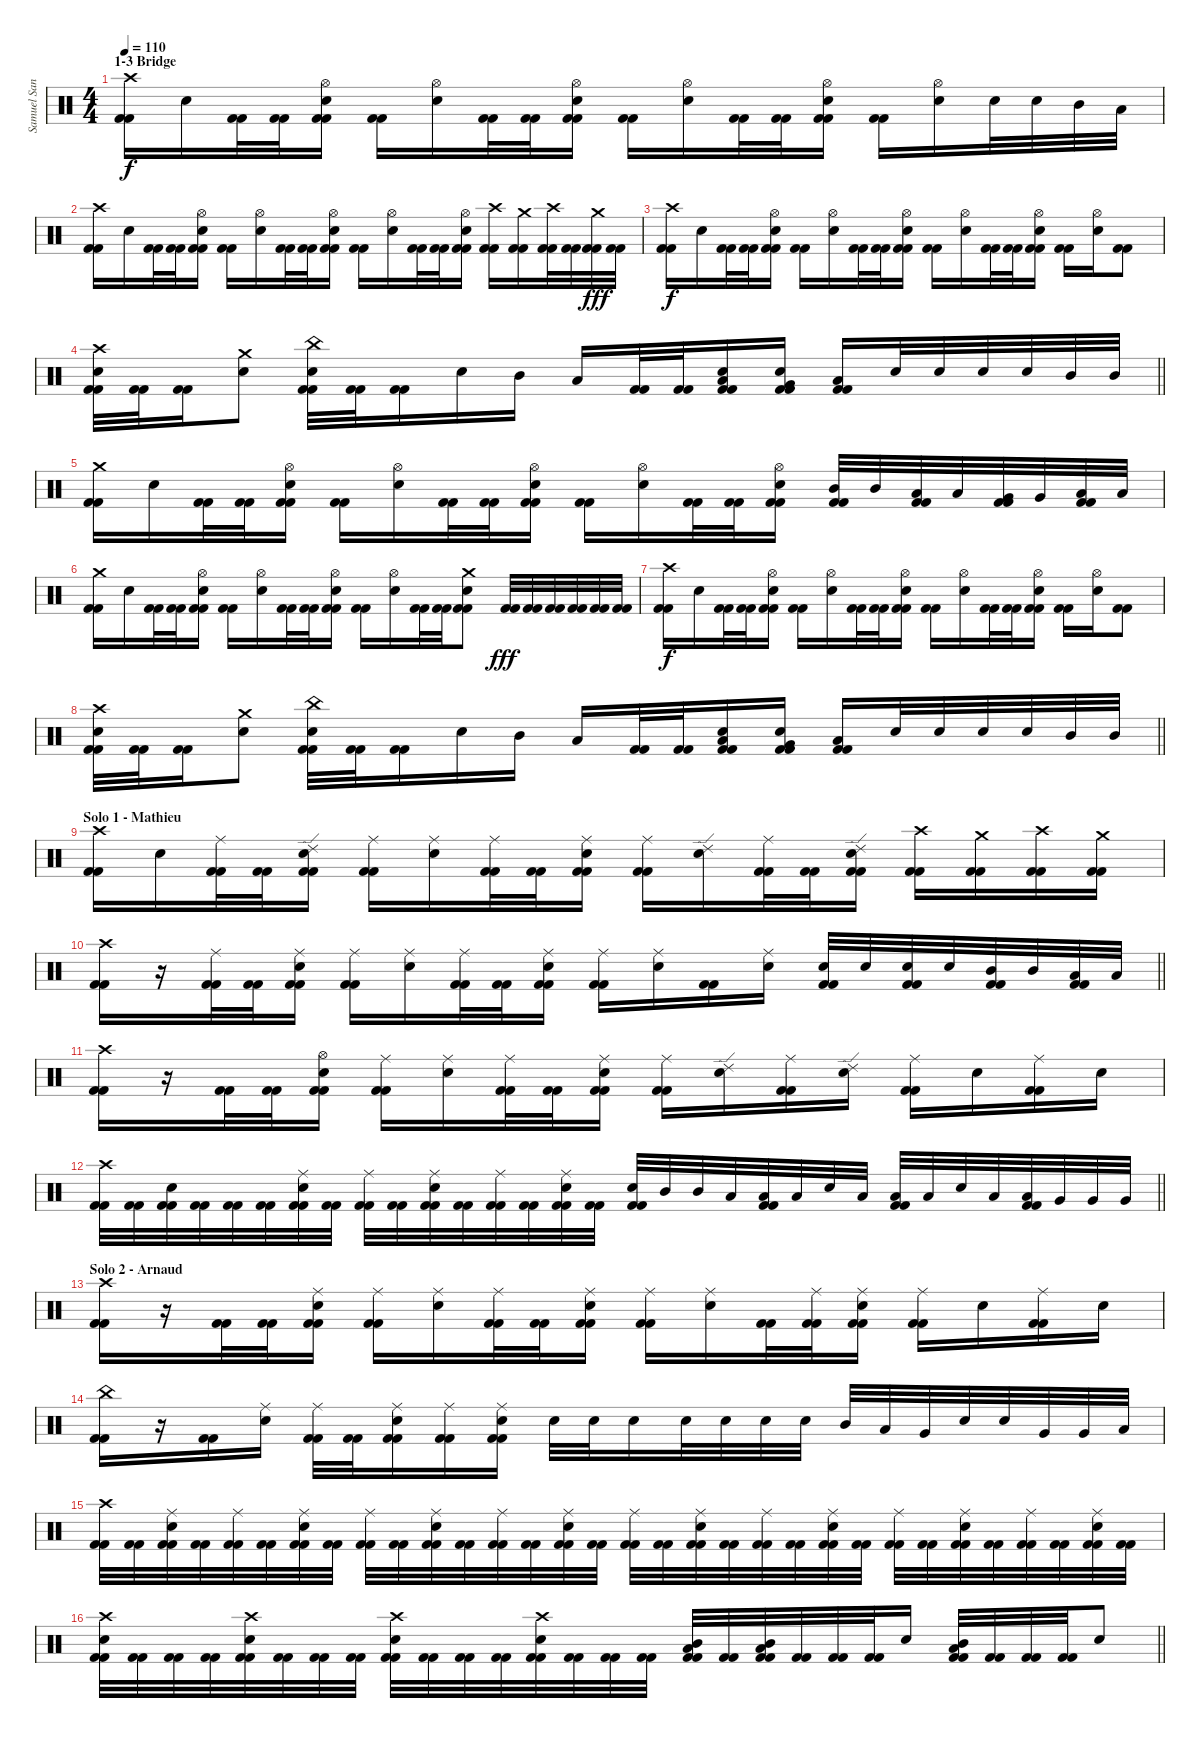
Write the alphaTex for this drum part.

\track ("Samuel Santiago" "Samuel San") {instrument percussion}
\staff {score}
\articulation defaults
\ts (4 4)
\section ("" "1-3 Bridge")
\tempo 110
\clef neutral
\ks c
("Crash high (hit)" "Kick (hit) 2" "Kick (hit) 2").16{dy f} "Electric Snare (hit)".16 ("Kick (hit) 2" "Kick (hit) 2").32 ("Kick (hit) 2" "Kick (hit) 2").32 ("Hi-Hat (open)" "Electric Snare (hit)" "Kick (hit) 2" "Kick (hit) 2").16 ("Kick (hit) 2" "Kick (hit) 2").16 ("Hi-Hat (open)" "Electric Snare (hit)").16 ("Kick (hit) 2" "Kick (hit) 2").32 ("Kick (hit) 2" "Kick (hit) 2").32 ("Hi-Hat (open)" "Electric Snare (hit)" "Kick (hit) 2" "Kick (hit) 2").16 ("Kick (hit) 2" "Kick (hit) 2").16 ("Hi-Hat (open)" "Electric Snare (hit)").16 ("Kick (hit) 2" "Kick (hit) 2").32 ("Kick (hit) 2" "Kick (hit) 2").32 ("Hi-Hat (open)" "Electric Snare (hit)" "Kick (hit) 2" "Kick (hit) 2").16 ("Kick (hit) 2" "Kick (hit) 2").16 ("Hi-Hat (open)" "Electric Snare (hit)").16 "Electric Snare (hit)".32 "Electric Snare (hit)".32 "Mid Tom (hit)".32 "Low Tom (hit)".32 |
("Crash high (hit)" "Kick (hit) 2" "Kick (hit) 2").16 "Electric Snare (hit)".16 ("Kick (hit) 2" "Kick (hit) 2").32 ("Kick (hit) 2" "Kick (hit) 2").32 ("Hi-Hat (open)" "Electric Snare (hit)" "Kick (hit) 2" "Kick (hit) 2").16 ("Kick (hit) 2" "Kick (hit) 2").16 ("Hi-Hat (open)" "Electric Snare (hit)").16 ("Kick (hit) 2" "Kick (hit) 2").32 ("Kick (hit) 2" "Kick (hit) 2").32 ("Hi-Hat (open)" "Electric Snare (hit)" "Kick (hit) 2" "Kick (hit) 2").16 ("Kick (hit) 2" "Kick (hit) 2").16 ("Hi-Hat (open)" "Electric Snare (hit)").16 ("Kick (hit) 2" "Kick (hit) 2").32 ("Kick (hit) 2" "Kick (hit) 2").32 ("Hi-Hat (open)" "Electric Snare (hit)" "Kick (hit) 2" "Kick (hit) 2").16 ("Crash high (hit)" "Kick (hit) 2" "Kick (hit) 2").16 ("Crash medium (hit)" "Kick (hit) 2" "Kick (hit) 2").16 ("Crash high (hit)" "Kick (hit) 2" "Kick (hit) 2").32 ("Kick (hit) 2" "Kick (hit) 2").32 ("Crash medium (hit)" "Kick (hit) 2" "Kick (hit) 2").32{dy fff} ("Kick (hit) 2" "Kick (hit) 2").32 |
("Crash high (hit)" "Kick (hit) 2" "Kick (hit) 2").16{dy f} "Electric Snare (hit)".16 ("Kick (hit) 2" "Kick (hit) 2").32 ("Kick (hit) 2" "Kick (hit) 2").32 ("Hi-Hat (open)" "Electric Snare (hit)" "Kick (hit) 2" "Kick (hit) 2").16 ("Kick (hit) 2" "Kick (hit) 2").16 ("Hi-Hat (open)" "Electric Snare (hit)").16 ("Kick (hit) 2" "Kick (hit) 2").32 ("Kick (hit) 2" "Kick (hit) 2").32 ("Hi-Hat (open)" "Electric Snare (hit)" "Kick (hit) 2" "Kick (hit) 2").16 ("Kick (hit) 2" "Kick (hit) 2").16 ("Hi-Hat (open)" "Electric Snare (hit)").16 ("Kick (hit) 2" "Kick (hit) 2").32 ("Kick (hit) 2" "Kick (hit) 2").32 ("Hi-Hat (open)" "Electric Snare (hit)" "Kick (hit) 2" "Kick (hit) 2").16 ("Kick (hit) 2" "Kick (hit) 2").16 ("Hi-Hat (open)" "Electric Snare (hit)").16 ("Kick (hit) 2" "Kick (hit) 2").8 |
\barLineRight lightlight
("Crash high (hit)" "Electric Snare (hit)" "Kick (hit) 2" "Kick (hit) 2").32 ("Kick (hit) 2" "Kick (hit) 2").32 ("Kick (hit) 2" "Kick (hit) 2").16 ("Crash medium (hit)" "Electric Snare (hit)").8 ("China (hit)" "Electric Snare (hit)" "Kick (hit) 2" "Kick (hit) 2").32 ("Kick (hit) 2" "Kick (hit) 2").32 ("Kick (hit) 2" "Kick (hit) 2").16 "Electric Snare (hit)".16 "Mid Tom (hit)".16 "Low Tom (hit)".16 ("Kick (hit) 2" "Kick (hit) 2").32 ("Kick (hit) 2" "Kick (hit) 2").32 ("Electric Snare (hit)" "Low Tom (hit)" "Kick (hit) 2" "Kick (hit) 2").16 ("Electric Snare (hit)" "Very Low Tom (hit)" "Kick (hit) 2" "Kick (hit) 2").16 ("Low Floor Tom (hit)" "Kick (hit) 2" "Kick (hit) 2").16 "Electric Snare (hit)".32 "Electric Snare (hit)".32 "Electric Snare (hit)".32 "Electric Snare (hit)".32 "Mid Tom (hit)".32 "Mid Tom (hit)".32 |
("Crash medium (hit)" "Kick (hit) 2" "Kick (hit) 2").16 "Electric Snare (hit)".16 ("Kick (hit) 2" "Kick (hit) 2").32 ("Kick (hit) 2" "Kick (hit) 2").32 ("Hi-Hat (open)" "Electric Snare (hit)" "Kick (hit) 2" "Kick (hit) 2").16 ("Kick (hit) 2" "Kick (hit) 2").16 ("Hi-Hat (open)" "Electric Snare (hit)").16 ("Kick (hit) 2" "Kick (hit) 2").32 ("Kick (hit) 2" "Kick (hit) 2").32 ("Hi-Hat (open)" "Electric Snare (hit)" "Kick (hit) 2" "Kick (hit) 2").16 ("Kick (hit) 2" "Kick (hit) 2").16 ("Hi-Hat (open)" "Electric Snare (hit)").16 ("Kick (hit) 2" "Kick (hit) 2").32 ("Kick (hit) 2" "Kick (hit) 2").32 ("Hi-Hat (open)" "Electric Snare (hit)" "Kick (hit) 2" "Kick (hit) 2").16 ("Mid Tom (hit)" "Kick (hit) 2" "Kick (hit) 2").32 "Mid Tom (hit)".32 ("Low Tom (hit)" "Kick (hit) 2" "Kick (hit) 2").32 "Low Tom (hit)".32 ("Very Low Tom (hit)" "Kick (hit) 2" "Kick (hit) 2").32 "Very Low Tom (hit)".32 ("Low Floor Tom (hit)" "Kick (hit) 2" "Kick (hit) 2").32 "Low Floor Tom (hit)".32 |
("Crash medium (hit)" "Kick (hit) 2" "Kick (hit) 2").16 "Electric Snare (hit)".16 ("Kick (hit) 2" "Kick (hit) 2").32 ("Kick (hit) 2" "Kick (hit) 2").32 ("Hi-Hat (open)" "Electric Snare (hit)" "Kick (hit) 2" "Kick (hit) 2").16 ("Kick (hit) 2" "Kick (hit) 2").16 ("Hi-Hat (open)" "Electric Snare (hit)").16 ("Kick (hit) 2" "Kick (hit) 2").32 ("Kick (hit) 2" "Kick (hit) 2").32 ("Hi-Hat (open)" "Electric Snare (hit)" "Kick (hit) 2" "Kick (hit) 2").16 ("Kick (hit) 2" "Kick (hit) 2").16 ("Hi-Hat (open)" "Electric Snare (hit)").16 ("Kick (hit) 2" "Kick (hit) 2").32 ("Kick (hit) 2" "Kick (hit) 2").32 ("Crash medium (hit)" "Electric Snare (hit)" "Kick (hit) 2" "Kick (hit) 2").8 ("Kick (hit) 2" "Kick (hit) 2").32{dy fff} ("Kick (hit) 2" "Kick (hit) 2").32 ("Kick (hit) 2" "Kick (hit) 2").32 ("Kick (hit) 2" "Kick (hit) 2").32 ("Kick (hit) 2" "Kick (hit) 2").32 ("Kick (hit) 2" "Kick (hit) 2").32 |
("Crash high (hit)" "Kick (hit) 2" "Kick (hit) 2").16{dy f} "Electric Snare (hit)".16 ("Kick (hit) 2" "Kick (hit) 2").32 ("Kick (hit) 2" "Kick (hit) 2").32 ("Hi-Hat (open)" "Electric Snare (hit)" "Kick (hit) 2" "Kick (hit) 2").16 ("Kick (hit) 2" "Kick (hit) 2").16 ("Hi-Hat (open)" "Electric Snare (hit)").16 ("Kick (hit) 2" "Kick (hit) 2").32 ("Kick (hit) 2" "Kick (hit) 2").32 ("Hi-Hat (open)" "Electric Snare (hit)" "Kick (hit) 2" "Kick (hit) 2").16 ("Kick (hit) 2" "Kick (hit) 2").16 ("Hi-Hat (open)" "Electric Snare (hit)").16 ("Kick (hit) 2" "Kick (hit) 2").32 ("Kick (hit) 2" "Kick (hit) 2").32 ("Hi-Hat (open)" "Electric Snare (hit)" "Kick (hit) 2" "Kick (hit) 2").16 ("Kick (hit) 2" "Kick (hit) 2").16 ("Hi-Hat (open)" "Electric Snare (hit)").16 ("Kick (hit) 2" "Kick (hit) 2").8 |
\barLineRight lightlight
("Crash high (hit)" "Electric Snare (hit)" "Kick (hit) 2" "Kick (hit) 2").32 ("Kick (hit) 2" "Kick (hit) 2").32 ("Kick (hit) 2" "Kick (hit) 2").16 ("Crash medium (hit)" "Electric Snare (hit)").8 ("China (hit)" "Electric Snare (hit)" "Kick (hit) 2" "Kick (hit) 2").32 ("Kick (hit) 2" "Kick (hit) 2").32 ("Kick (hit) 2" "Kick (hit) 2").16 "Electric Snare (hit)".16 "Mid Tom (hit)".16 "Low Tom (hit)".16 ("Kick (hit) 2" "Kick (hit) 2").32 ("Kick (hit) 2" "Kick (hit) 2").32 ("Electric Snare (hit)" "Low Tom (hit)" "Kick (hit) 2" "Kick (hit) 2").16 ("Electric Snare (hit)" "Very Low Tom (hit)" "Kick (hit) 2" "Kick (hit) 2").16 ("Low Floor Tom (hit)" "Kick (hit) 2" "Kick (hit) 2").16 "Electric Snare (hit)".32 "Electric Snare (hit)".32 "Electric Snare (hit)".32 "Electric Snare (hit)".32 "Mid Tom (hit)".32 "Mid Tom (hit)".32 |
\section ("" "Solo 1 - Mathieu")
("Crash high (hit)" "Kick (hit) 2" "Kick (hit) 2").16 "Electric Snare (hit)".16 ("Ride (middle)" "Kick (hit) 2" "Kick (hit) 2").32 ("Kick (hit) 2" "Kick (hit) 2").32 ("Ride (edge) 2" "Electric Snare (hit)" "Kick (hit) 2" "Kick (hit) 2").16 ("Ride (middle)" "Kick (hit) 2" "Kick (hit) 2").16 ("Ride (middle)" "Electric Snare (hit)").16 ("Ride (middle)" "Kick (hit) 2" "Kick (hit) 2").32 ("Kick (hit) 2" "Kick (hit) 2").32 ("Ride (middle)" "Electric Snare (hit)" "Kick (hit) 2" "Kick (hit) 2").16 ("Ride (middle)" "Kick (hit) 2" "Kick (hit) 2").16 ("Ride (edge) 2" "Electric Snare (hit)").16 ("Ride (middle)" "Kick (hit) 2" "Kick (hit) 2").32 ("Kick (hit) 2" "Kick (hit) 2").32 ("Ride (edge) 2" "Electric Snare (hit)" "Kick (hit) 2" "Kick (hit) 2").16 ("Crash high (hit)" "Kick (hit) 2" "Kick (hit) 2").16 ("Crash medium (hit)" "Kick (hit) 2" "Kick (hit) 2").16 ("Crash high (hit)" "Kick (hit) 2" "Kick (hit) 2").16 ("Crash medium (hit)" "Kick (hit) 2" "Kick (hit) 2").16 |
\barLineRight lightlight
("Crash high (hit)" "Kick (hit) 2" "Kick (hit) 2").16 r.16 ("Ride (middle)" "Kick (hit) 2" "Kick (hit) 2").32 ("Kick (hit) 2" "Kick (hit) 2").32 ("Ride (middle)" "Electric Snare (hit)" "Kick (hit) 2" "Kick (hit) 2").16 ("Ride (middle)" "Kick (hit) 2" "Kick (hit) 2").16 ("Ride (middle)" "Electric Snare (hit)").16 ("Ride (middle)" "Kick (hit) 2" "Kick (hit) 2").32 ("Kick (hit) 2" "Kick (hit) 2").32 ("Ride (middle)" "Electric Snare (hit)" "Kick (hit) 2" "Kick (hit) 2").16 ("Ride (middle)" "Kick (hit) 2" "Kick (hit) 2").16 ("Ride (middle)" "Electric Snare (hit)").16 ("Kick (hit) 2" "Kick (hit) 2").16 ("Ride (middle)" "Electric Snare (hit)").16 ("Electric Snare (hit)" "Kick (hit) 2" "Kick (hit) 2").32 "Electric Snare (hit)".32 ("Electric Snare (hit)" "Kick (hit) 2" "Kick (hit) 2").32 "Electric Snare (hit)".32 ("Mid Tom (hit)" "Kick (hit) 2" "Kick (hit) 2").32 "Mid Tom (hit)".32 ("Low Tom (hit)" "Kick (hit) 2" "Kick (hit) 2").32 "Low Tom (hit)".32 |
("Crash high (hit)" "Kick (hit) 2" "Kick (hit) 2").16 r.16 ("Kick (hit) 2" "Kick (hit) 2").32 ("Kick (hit) 2" "Kick (hit) 2").32 ("Hi-Hat (open)" "Electric Snare (hit)" "Kick (hit) 2" "Kick (hit) 2").16 ("Ride (middle)" "Kick (hit) 2" "Kick (hit) 2").16 ("Ride (middle)" "Electric Snare (hit)").16 ("Ride (middle)" "Kick (hit) 2" "Kick (hit) 2").32 ("Kick (hit) 2" "Kick (hit) 2").32 ("Ride (middle)" "Electric Snare (hit)" "Kick (hit) 2" "Kick (hit) 2").16 ("Ride (middle)" "Kick (hit) 2" "Kick (hit) 2").16 ("Ride (edge) 2" "Electric Snare (hit)").16 ("Ride (middle)" "Kick (hit) 2" "Kick (hit) 2").16 ("Ride (edge) 2" "Electric Snare (hit)").16 ("Ride (middle)" "Kick (hit) 2" "Kick (hit) 2").16 "Electric Snare (hit)".16 ("Ride (middle)" "Kick (hit) 2" "Kick (hit) 2").16 "Electric Snare (hit)".16 |
\barLineRight lightlight
("Crash high (hit)" "Kick (hit) 2" "Kick (hit) 2").32 ("Kick (hit) 2" "Kick (hit) 2").32 ("Electric Snare (hit)" "Kick (hit) 2" "Kick (hit) 2").32 ("Kick (hit) 2" "Kick (hit) 2").32 ("Kick (hit) 2" "Kick (hit) 2").32 ("Kick (hit) 2" "Kick (hit) 2").32 ("Ride (middle)" "Electric Snare (hit)" "Kick (hit) 2" "Kick (hit) 2").32 ("Kick (hit) 2" "Kick (hit) 2").32 ("Ride (middle)" "Kick (hit) 2" "Kick (hit) 2").32 ("Kick (hit) 2" "Kick (hit) 2").32 ("Ride (middle)" "Electric Snare (hit)" "Kick (hit) 2" "Kick (hit) 2").32 ("Kick (hit) 2" "Kick (hit) 2").32 ("Ride (middle)" "Kick (hit) 2" "Kick (hit) 2").32 ("Kick (hit) 2" "Kick (hit) 2").32 ("Ride (middle)" "Electric Snare (hit)" "Kick (hit) 2" "Kick (hit) 2").32 ("Kick (hit) 2" "Kick (hit) 2").32 ("Electric Snare (hit)" "Kick (hit) 2" "Kick (hit) 2").32 "Mid Tom (hit)".32 "Mid Tom (hit)".32 "Low Tom (hit)".32 ("Low Tom (hit)" "Kick (hit) 2" "Kick (hit) 2").32 "Low Tom (hit)".32 "Electric Snare (hit)".32 "Low Tom (hit)".32 ("Low Tom (hit)" "Kick (hit) 2" "Kick (hit) 2").32 "Low Tom (hit)".32 "Electric Snare (hit)".32 "Low Tom (hit)".32 ("Low Tom (hit)" "Kick (hit) 2" "Kick (hit) 2").32 "Very Low Tom (hit)".32 "Very Low Tom (hit)".32 "Very Low Tom (hit)".32 |
\section ("" "Solo 2 - Arnaud")
("Crash high (hit)" "Kick (hit) 2" "Kick (hit) 2").16 r.16 ("Kick (hit) 2" "Kick (hit) 2").32 ("Kick (hit) 2" "Kick (hit) 2").32 ("Ride (middle)" "Electric Snare (hit)" "Kick (hit) 2" "Kick (hit) 2").16 ("Ride (middle)" "Kick (hit) 2" "Kick (hit) 2").16 ("Ride (middle)" "Electric Snare (hit)").16 ("Ride (middle)" "Kick (hit) 2" "Kick (hit) 2").32 ("Kick (hit) 2" "Kick (hit) 2").32 ("Ride (middle)" "Electric Snare (hit)" "Kick (hit) 2" "Kick (hit) 2").16 ("Ride (middle)" "Kick (hit) 2" "Kick (hit) 2").16 ("Ride (middle)" "Electric Snare (hit)").16 ("Kick (hit) 2" "Kick (hit) 2").32 ("Ride (middle)" "Kick (hit) 2" "Kick (hit) 2").32 ("Ride (middle)" "Electric Snare (hit)" "Kick (hit) 2" "Kick (hit) 2").16 ("Ride (middle)" "Kick (hit) 2" "Kick (hit) 2").16 "Electric Snare (hit)".16 ("Ride (middle)" "Kick (hit) 2" "Kick (hit) 2").16 "Electric Snare (hit)".16 |
("China (hit)" "Kick (hit) 2" "Kick (hit) 2").16 r.16 ("Kick (hit) 2" "Kick (hit) 2").16 ("Ride (middle)" "Electric Snare (hit)").16 ("Ride (middle)" "Kick (hit) 2" "Kick (hit) 2").32 ("Kick (hit) 2" "Kick (hit) 2").32 ("Ride (middle)" "Electric Snare (hit)" "Kick (hit) 2" "Kick (hit) 2").16 ("Ride (middle)" "Kick (hit) 2" "Kick (hit) 2").16 ("Ride (middle)" "Electric Snare (hit)" "Kick (hit) 2" "Kick (hit) 2").16 "Electric Snare (hit)".32 "Electric Snare (hit)".32 "Electric Snare (hit)".16 "Electric Snare (hit)".32 "Electric Snare (hit)".32 "Electric Snare (hit)".32 "Electric Snare (hit)".32 "Mid Tom (hit)".32 "Low Tom (hit)".32 "Very Low Tom (hit)".32 "Electric Snare (hit)".32 "Electric Snare (hit)".32 "Very Low Tom (hit)".32 "Very Low Tom (hit)".32 "Low Floor Tom (hit)".32 |
("Crash high (hit)" "Kick (hit) 2" "Kick (hit) 2").32 ("Kick (hit) 2" "Kick (hit) 2").32 ("Ride (middle)" "Electric Snare (hit)" "Kick (hit) 2" "Kick (hit) 2").32 ("Kick (hit) 2" "Kick (hit) 2").32 ("Ride (middle)" "Kick (hit) 2" "Kick (hit) 2").32 ("Kick (hit) 2" "Kick (hit) 2").32 ("Ride (middle)" "Electric Snare (hit)" "Kick (hit) 2" "Kick (hit) 2").32 ("Kick (hit) 2" "Kick (hit) 2").32 ("Ride (middle)" "Kick (hit) 2" "Kick (hit) 2").32 ("Kick (hit) 2" "Kick (hit) 2").32 ("Ride (middle)" "Electric Snare (hit)" "Kick (hit) 2" "Kick (hit) 2").32 ("Kick (hit) 2" "Kick (hit) 2").32 ("Ride (middle)" "Kick (hit) 2" "Kick (hit) 2").32 ("Kick (hit) 2" "Kick (hit) 2").32 ("Ride (middle)" "Electric Snare (hit)" "Kick (hit) 2" "Kick (hit) 2").32 ("Kick (hit) 2" "Kick (hit) 2").32 ("Ride (middle)" "Kick (hit) 2" "Kick (hit) 2").32 ("Kick (hit) 2" "Kick (hit) 2").32 ("Ride (middle)" "Electric Snare (hit)" "Kick (hit) 2" "Kick (hit) 2").32 ("Kick (hit) 2" "Kick (hit) 2").32 ("Ride (middle)" "Kick (hit) 2" "Kick (hit) 2").32 ("Kick (hit) 2" "Kick (hit) 2").32 ("Ride (middle)" "Electric Snare (hit)" "Kick (hit) 2" "Kick (hit) 2").32 ("Kick (hit) 2" "Kick (hit) 2").32 ("Ride (middle)" "Kick (hit) 2" "Kick (hit) 2").32 ("Kick (hit) 2" "Kick (hit) 2").32 ("Ride (middle)" "Electric Snare (hit)" "Kick (hit) 2" "Kick (hit) 2").32 ("Kick (hit) 2" "Kick (hit) 2").32 ("Ride (middle)" "Kick (hit) 2" "Kick (hit) 2").32 ("Kick (hit) 2" "Kick (hit) 2").32 ("Ride (middle)" "Electric Snare (hit)" "Kick (hit) 2" "Kick (hit) 2").32 ("Kick (hit) 2" "Kick (hit) 2").32 |
\barLineRight lightlight
("Crash high (hit)" "Electric Snare (hit)" "Kick (hit) 2" "Kick (hit) 2").32 ("Kick (hit) 2" "Kick (hit) 2").32 ("Kick (hit) 2" "Kick (hit) 2").32 ("Kick (hit) 2" "Kick (hit) 2").32 ("Crash high (hit)" "Electric Snare (hit)" "Kick (hit) 2" "Kick (hit) 2").32 ("Kick (hit) 2" "Kick (hit) 2").32 ("Kick (hit) 2" "Kick (hit) 2").32 ("Kick (hit) 2" "Kick (hit) 2").32 ("Crash high (hit)" "Electric Snare (hit)" "Kick (hit) 2" "Kick (hit) 2").32 ("Kick (hit) 2" "Kick (hit) 2").32 ("Kick (hit) 2" "Kick (hit) 2").32 ("Kick (hit) 2" "Kick (hit) 2").32 ("Crash high (hit)" "Electric Snare (hit)" "Kick (hit) 2" "Kick (hit) 2").32 ("Kick (hit) 2" "Kick (hit) 2").32 ("Kick (hit) 2" "Kick (hit) 2").32 ("Kick (hit) 2" "Kick (hit) 2").32 ("Mid Tom (hit)" "Low Tom (hit)" "Kick (hit) 2" "Kick (hit) 2").32 ("Kick (hit) 2" "Kick (hit) 2").32 ("Mid Tom (hit)" "Low Tom (hit)" "Kick (hit) 2" "Kick (hit) 2").32 ("Kick (hit) 2" "Kick (hit) 2").32 ("Kick (hit) 2" "Kick (hit) 2").32 ("Kick (hit) 2" "Kick (hit) 2").32 "Electric Snare (hit)".16 ("Low Tom (hit)" "Mid Tom (hit)" "Kick (hit) 2" "Kick (hit) 2").32 ("Kick (hit) 2" "Kick (hit) 2").32 ("Kick (hit) 2" "Kick (hit) 2").32 ("Kick (hit) 2" "Kick (hit) 2").32 "Electric Snare (hit)".8
